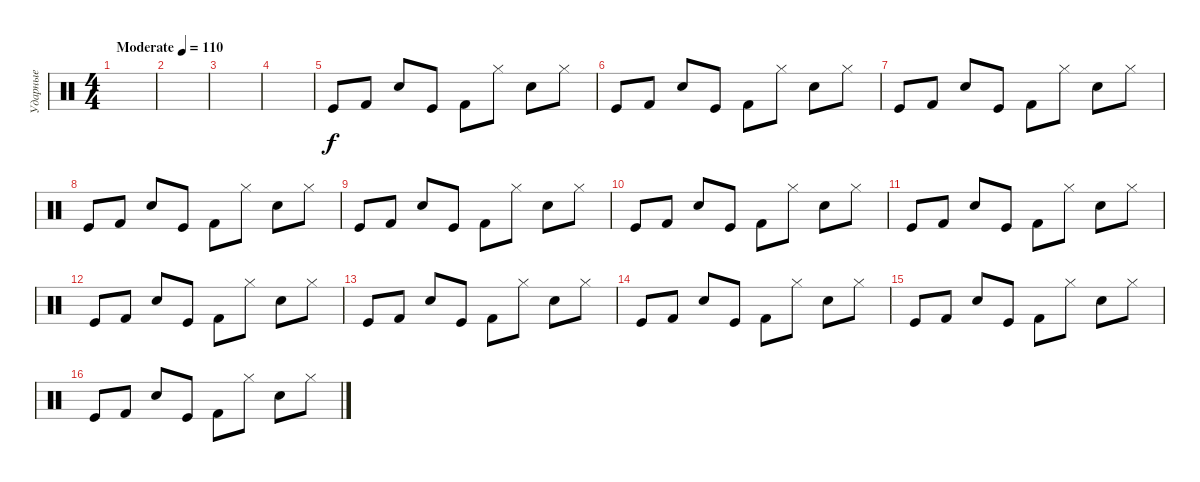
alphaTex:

\track ("Ударные" "Ударные") {instrument percussion}
\staff {score}
\articulation defaults
\ts (4 4)
\tempo (110 "Moderate")
\clef neutral
\ks c
|
|
|
|
"Kick (hit)".8 "Kick (hit) 2".8 "Snare (hit) 2".8 "Kick (hit)".8 "Kick (hit) 2".8 "Hi-Hat (closed)".8 "Snare (hit) 2".8 "Hi-Hat (closed)".8 |
"Kick (hit)".8 "Kick (hit) 2".8 "Snare (hit) 2".8 "Kick (hit)".8 "Kick (hit) 2".8 "Hi-Hat (closed)".8 "Snare (hit) 2".8 "Hi-Hat (closed)".8 |
"Kick (hit)".8 "Kick (hit) 2".8 "Snare (hit) 2".8 "Kick (hit)".8 "Kick (hit) 2".8 "Hi-Hat (closed)".8 "Snare (hit) 2".8 "Hi-Hat (closed)".8 |
"Kick (hit)".8 "Kick (hit) 2".8 "Snare (hit) 2".8 "Kick (hit)".8 "Kick (hit) 2".8 "Hi-Hat (closed)".8 "Snare (hit) 2".8 "Hi-Hat (closed)".8 |
"Kick (hit)".8 "Kick (hit) 2".8 "Snare (hit) 2".8 "Kick (hit)".8 "Kick (hit) 2".8 "Hi-Hat (closed)".8 "Snare (hit) 2".8 "Hi-Hat (closed)".8 |
"Kick (hit)".8 "Kick (hit) 2".8 "Snare (hit) 2".8 "Kick (hit)".8 "Kick (hit) 2".8 "Hi-Hat (closed)".8 "Snare (hit) 2".8 "Hi-Hat (closed)".8 |
"Kick (hit)".8 "Kick (hit) 2".8 "Snare (hit) 2".8 "Kick (hit)".8 "Kick (hit) 2".8 "Hi-Hat (closed)".8 "Snare (hit) 2".8 "Hi-Hat (closed)".8 |
"Kick (hit)".8 "Kick (hit) 2".8 "Snare (hit) 2".8 "Kick (hit)".8 "Kick (hit) 2".8 "Hi-Hat (closed)".8 "Snare (hit) 2".8 "Hi-Hat (closed)".8 |
"Kick (hit)".8 "Kick (hit) 2".8 "Snare (hit) 2".8 "Kick (hit)".8 "Kick (hit) 2".8 "Hi-Hat (closed)".8 "Snare (hit) 2".8 "Hi-Hat (closed)".8 |
"Kick (hit)".8 "Kick (hit) 2".8 "Snare (hit) 2".8 "Kick (hit)".8 "Kick (hit) 2".8 "Hi-Hat (closed)".8 "Snare (hit) 2".8 "Hi-Hat (closed)".8 |
"Kick (hit)".8 "Kick (hit) 2".8 "Snare (hit) 2".8 "Kick (hit)".8 "Kick (hit) 2".8 "Hi-Hat (closed)".8 "Snare (hit) 2".8 "Hi-Hat (closed)".8 |
"Kick (hit)".8 "Kick (hit) 2".8 "Snare (hit) 2".8 "Kick (hit)".8 "Kick (hit) 2".8 "Hi-Hat (closed)".8 "Snare (hit) 2".8 "Hi-Hat (closed)".8
